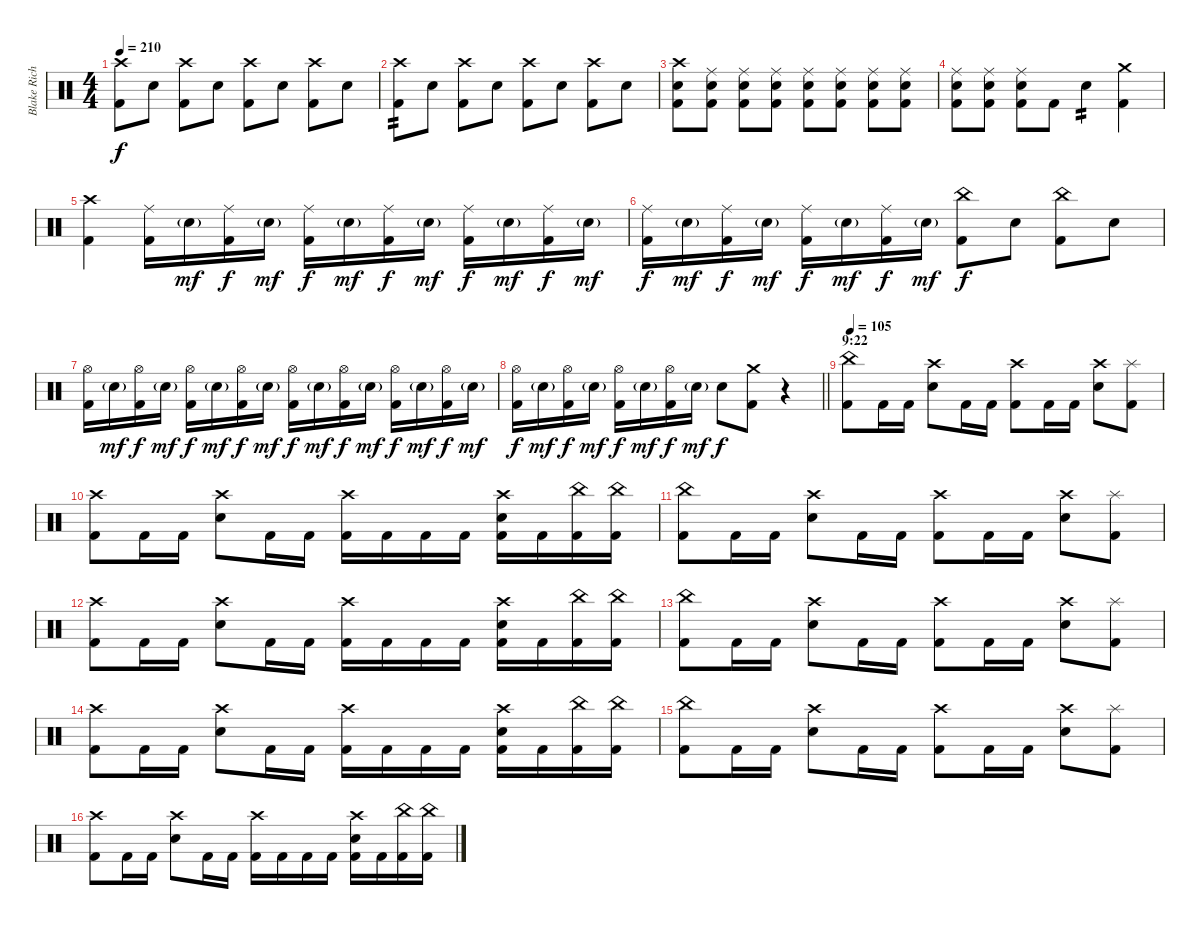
\track ("Blake Richardson" "Blake Rich") {instrument percussion}
\staff {score}
\articulation defaults
\ts (4 4)
\tempo 210
\clef neutral
\ks c
("Crash high (hit)" "Kick (hit) 2").8{dy f} "Electric Snare (hit)".8 ("Crash high (hit)" "Kick (hit) 2").8 "Electric Snare (hit)".8 ("Crash high (hit)" "Kick (hit) 2").8 "Electric Snare (hit)".8 ("Crash high (hit)" "Kick (hit) 2").8 "Electric Snare (hit)".8 |
("Crash high (hit)" "Kick (hit) 2").8{tp 2} "Electric Snare (hit)".8 ("Crash high (hit)" "Kick (hit) 2").8 "Electric Snare (hit)".8 ("Crash high (hit)" "Kick (hit) 2").8 "Electric Snare (hit)".8 ("Crash high (hit)" "Kick (hit) 2").8 "Electric Snare (hit)".8 |
("Crash high (hit)" "Electric Snare (hit)" "Kick (hit) 2").8 ("Ride (middle)" "Electric Snare (hit)" "Kick (hit) 2").8 ("Ride (middle)" "Electric Snare (hit)" "Kick (hit) 2").8 ("Ride (middle)" "Electric Snare (hit)" "Kick (hit) 2").8 ("Ride (middle)" "Electric Snare (hit)" "Kick (hit) 2").8 ("Ride (middle)" "Electric Snare (hit)" "Kick (hit) 2").8 ("Ride (middle)" "Electric Snare (hit)" "Kick (hit) 2").8 ("Ride (middle)" "Electric Snare (hit)" "Kick (hit) 2").8 |
("Ride (middle)" "Electric Snare (hit)" "Kick (hit) 2").8 ("Ride (middle)" "Electric Snare (hit)" "Kick (hit) 2").8 ("Ride (middle)" "Electric Snare (hit)" "Kick (hit) 2").8 "Kick (hit) 2".8 "Electric Snare (hit)".4{tp 2} ("Crash medium (hit)" "Kick (hit) 2").4 |
("Crash high (hit)" "Kick (hit) 2").4 ("Ride (middle)" "Kick (hit) 2").16 "Electric Snare (hit)"{g}.16{dy mf} ("Ride (middle)" "Kick (hit) 2").16{dy f} "Electric Snare (hit)"{g}.16{dy mf} ("Ride (middle)" "Kick (hit) 2").16{dy f} "Electric Snare (hit)"{g}.16{dy mf} ("Ride (middle)" "Kick (hit) 2").16{dy f} "Electric Snare (hit)"{g}.16{dy mf} ("Ride (middle)" "Kick (hit) 2").16{dy f} "Electric Snare (hit)"{g}.16{dy mf} ("Ride (middle)" "Kick (hit) 2").16{dy f} "Electric Snare (hit)"{g}.16{dy mf} |
("Ride (middle)" "Kick (hit) 2").16{dy f} "Electric Snare (hit)"{g}.16{dy mf} ("Ride (middle)" "Kick (hit) 2").16{dy f} "Electric Snare (hit)"{g}.16{dy mf} ("Ride (middle)" "Kick (hit) 2").16{dy f} "Electric Snare (hit)"{g}.16{dy mf} ("Ride (middle)" "Kick (hit) 2").16{dy f} "Electric Snare (hit)"{g}.16{dy mf} ("China (hit)" "Kick (hit) 2").8{dy f} "Electric Snare (hit)".8 ("China (hit)" "Kick (hit) 2").8 "Electric Snare (hit)".8 |
("Hi-Hat (open)" "Kick (hit) 2").16 "Electric Snare (hit)"{g}.16{dy mf} ("Hi-Hat (open)" "Kick (hit) 2").16{dy f} "Electric Snare (hit)"{g}.16{dy mf} ("Hi-Hat (open)" "Kick (hit) 2").16{dy f} "Electric Snare (hit)"{g}.16{dy mf} ("Hi-Hat (open)" "Kick (hit) 2").16{dy f} "Electric Snare (hit)"{g}.16{dy mf} ("Hi-Hat (open)" "Kick (hit) 2").16{dy f} "Electric Snare (hit)"{g}.16{dy mf} ("Hi-Hat (open)" "Kick (hit) 2").16{dy f} "Electric Snare (hit)"{g}.16{dy mf} ("Hi-Hat (open)" "Kick (hit) 2").16{dy f} "Electric Snare (hit)"{g}.16{dy mf} ("Hi-Hat (open)" "Kick (hit) 2").16{dy f} "Electric Snare (hit)"{g}.16{dy mf} |
\barLineRight lightlight
("Hi-Hat (open)" "Kick (hit) 2").16{dy f} "Electric Snare (hit)"{g}.16{dy mf} ("Hi-Hat (open)" "Kick (hit) 2").16{dy f} "Electric Snare (hit)"{g}.16{dy mf} ("Hi-Hat (open)" "Kick (hit) 2").16{dy f} "Electric Snare (hit)"{g}.16{dy mf} ("Hi-Hat (open)" "Kick (hit) 2").16{dy f} "Electric Snare (hit)"{g}.16{dy mf} "Electric Snare (hit)".8{dy f} ("Crash medium (hit)" "Kick (hit) 2").8 r.4 |
\section ("" "9:22")
\tempo 105
("China (hit)" "Kick (hit) 2").8 "Kick (hit) 2".16 "Kick (hit) 2".16 ("Crash high (hit)" "Electric Snare (hit)").8 "Kick (hit) 2".16 "Kick (hit) 2".16 ("Crash high (hit)" "Kick (hit) 2").8 "Kick (hit) 2".16 "Kick (hit) 2".16 ("Crash high (hit)" "Electric Snare (hit)").8 ("Splash (hit)" "Kick (hit) 2").8 |
("Crash high (hit)" "Kick (hit) 2").8 "Kick (hit) 2".16 "Kick (hit) 2".16 ("Crash high (hit)" "Electric Snare (hit)").8 "Kick (hit) 2".16 "Kick (hit) 2".16 ("Crash high (hit)" "Kick (hit) 2").16 "Kick (hit) 2".16 "Kick (hit) 2".16 "Kick (hit) 2".16 ("Crash high (hit)" "Electric Snare (hit)" "Kick (hit) 2").16 "Kick (hit) 2".16 ("China (hit)" "Kick (hit) 2").16 ("China (hit)" "Kick (hit) 2").16 |
("China (hit)" "Kick (hit) 2").8 "Kick (hit) 2".16 "Kick (hit) 2".16 ("Crash high (hit)" "Electric Snare (hit)").8 "Kick (hit) 2".16 "Kick (hit) 2".16 ("Crash high (hit)" "Kick (hit) 2").8 "Kick (hit) 2".16 "Kick (hit) 2".16 ("Crash high (hit)" "Electric Snare (hit)").8 ("Splash (hit)" "Kick (hit) 2").8 |
("Crash high (hit)" "Kick (hit) 2").8 "Kick (hit) 2".16 "Kick (hit) 2".16 ("Crash high (hit)" "Electric Snare (hit)").8 "Kick (hit) 2".16 "Kick (hit) 2".16 ("Crash high (hit)" "Kick (hit) 2").16 "Kick (hit) 2".16 "Kick (hit) 2".16 "Kick (hit) 2".16 ("Crash high (hit)" "Electric Snare (hit)" "Kick (hit) 2").16 "Kick (hit) 2".16 ("China (hit)" "Kick (hit) 2").16 ("China (hit)" "Kick (hit) 2").16 |
("China (hit)" "Kick (hit) 2").8 "Kick (hit) 2".16 "Kick (hit) 2".16 ("Crash high (hit)" "Electric Snare (hit)").8 "Kick (hit) 2".16 "Kick (hit) 2".16 ("Crash high (hit)" "Kick (hit) 2").8 "Kick (hit) 2".16 "Kick (hit) 2".16 ("Crash high (hit)" "Electric Snare (hit)").8 ("Splash (hit)" "Kick (hit) 2").8 |
("Crash high (hit)" "Kick (hit) 2").8 "Kick (hit) 2".16 "Kick (hit) 2".16 ("Crash high (hit)" "Electric Snare (hit)").8 "Kick (hit) 2".16 "Kick (hit) 2".16 ("Crash high (hit)" "Kick (hit) 2").16 "Kick (hit) 2".16 "Kick (hit) 2".16 "Kick (hit) 2".16 ("Crash high (hit)" "Electric Snare (hit)" "Kick (hit) 2").16 "Kick (hit) 2".16 ("China (hit)" "Kick (hit) 2").16 ("China (hit)" "Kick (hit) 2").16 |
("China (hit)" "Kick (hit) 2").8 "Kick (hit) 2".16 "Kick (hit) 2".16 ("Crash high (hit)" "Electric Snare (hit)").8 "Kick (hit) 2".16 "Kick (hit) 2".16 ("Crash high (hit)" "Kick (hit) 2").8 "Kick (hit) 2".16 "Kick (hit) 2".16 ("Crash high (hit)" "Electric Snare (hit)").8 ("Splash (hit)" "Kick (hit) 2").8 |
("Crash high (hit)" "Kick (hit) 2").8 "Kick (hit) 2".16 "Kick (hit) 2".16 ("Crash high (hit)" "Electric Snare (hit)").8 "Kick (hit) 2".16 "Kick (hit) 2".16 ("Crash high (hit)" "Kick (hit) 2").16 "Kick (hit) 2".16 "Kick (hit) 2".16 "Kick (hit) 2".16 ("Crash high (hit)" "Electric Snare (hit)" "Kick (hit) 2").16 "Kick (hit) 2".16 ("China (hit)" "Kick (hit) 2").16 ("China (hit)" "Kick (hit) 2").16
